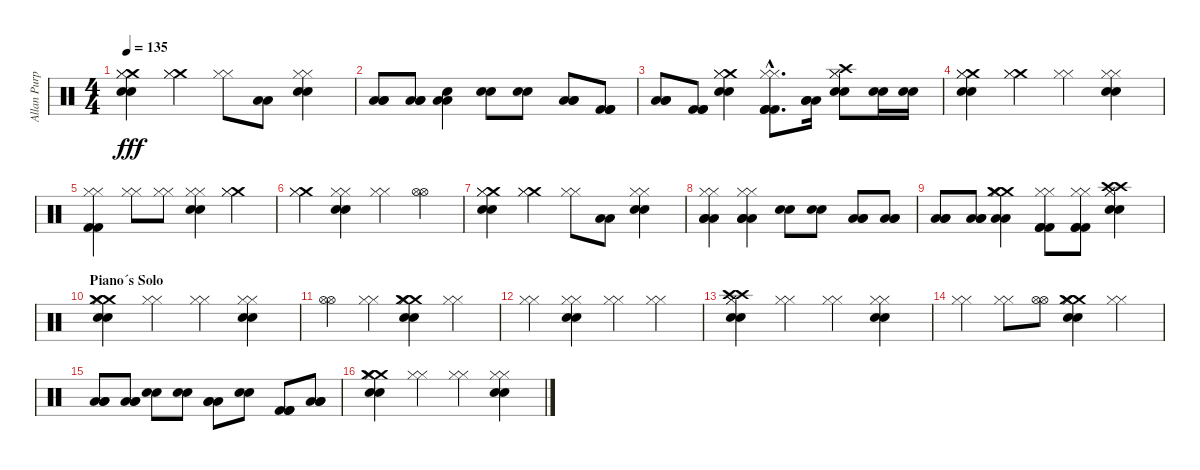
\track ("Allan Purple" "Allan Purp") {instrument percussion}
\staff {score}
\articulation defaults
\ts (4 4)
\tempo 135
\clef neutral
\ks c
("Crash medium (hit)" "Hi-Hat (closed)" "Hi-Hat (closed)" "Electric Snare (hit)" "Electric Snare (hit)").4{dy fff} ("Crash medium (hit)" "Hi-Hat (closed)" "Hi-Hat (closed)").4 ("Hi-Hat (closed)" "Hi-Hat (closed)").8 ("Low Floor Tom (hit)" "Low Floor Tom (hit)").8 ("Hi-Hat (closed)" "Hi-Hat (closed)" "Electric Snare (hit)" "Electric Snare (hit)").4 |
("Low Tom (hit)" "Low Tom (hit)" "Low Tom (hit)").8 ("Low Floor Tom (hit)" "Low Floor Tom (hit)" "Low Floor Tom (hit)").8 ("Low Tom (hit)" "Low Tom (hit)" "Electric Snare (hit)").4 ("Electric Snare (hit)" "Electric Snare (hit)").8 ("Electric Snare (hit)" "Electric Snare (hit)").8 ("Low Tom (hit)" "Low Tom (hit)" "Low Tom (hit)").8 ("Kick (hit) 2" "Kick (hit) 2" "Kick (hit) 2").8 |
("Low Tom (hit)" "Low Tom (hit)" "Low Tom (hit)").8 ("Kick (hit) 2" "Kick (hit) 2" "Kick (hit) 2").8 ("Crash medium (hit)" "Hi-Hat (closed)" "Hi-Hat (closed)" "Electric Snare (hit)" "Electric Snare (hit)").4 ("Kick (hit) 2"{hac} "Hi-Hat (closed)"{hac} "Hi-Hat (closed)"{hac} "Kick (hit) 2"{hac} "Kick (hit) 2"{hac}).8{d} ("Low Tom (hit)" "Low Tom (hit)" "Low Tom (hit)").16 ("Crash high (hit)" "Hi-Hat (closed)" "Hi-Hat (closed)" "Electric Snare (hit)" "Electric Snare (hit)").8 ("Electric Snare (hit)" "Electric Snare (hit)").16 ("Electric Snare (hit)" "Electric Snare (hit)").16 |
("Crash medium (hit)" "Hi-Hat (closed)" "Hi-Hat (closed)" "Electric Snare (hit)" "Electric Snare (hit)").4 ("Crash medium (hit)" "Hi-Hat (closed)" "Hi-Hat (closed)").4 ("Hi-Hat (closed)" "Hi-Hat (closed)").4 ("Hi-Hat (closed)" "Hi-Hat (closed)" "Electric Snare (hit)" "Electric Snare (hit)").4 |
("Hi-Hat (closed)" "Hi-Hat (closed)" "Kick (hit) 2" "Kick (hit) 2").4 ("Hi-Hat (closed)" "Hi-Hat (closed)").8 ("Hi-Hat (closed)" "Hi-Hat (closed)").8 ("Hi-Hat (closed)" "Hi-Hat (closed)" "Electric Snare (hit)" "Electric Snare (hit)").4 ("Crash medium (hit)" "Hi-Hat (closed)" "Hi-Hat (closed)").4 |
("Crash medium (hit)" "Hi-Hat (closed)" "Hi-Hat (closed)").4 ("Hi-Hat (closed)" "Hi-Hat (closed)" "Electric Snare (hit)" "Electric Snare (hit)").4 ("Hi-Hat (closed)" "Hi-Hat (closed)").4 ("Hi-Hat (open)" "Hi-Hat (open)").4 |
("Crash medium (hit)" "Hi-Hat (closed)" "Hi-Hat (closed)" "Electric Snare (hit)" "Electric Snare (hit)").4 ("Crash medium (hit)" "Hi-Hat (closed)" "Hi-Hat (closed)").4 ("Hi-Hat (closed)" "Hi-Hat (closed)").8 ("Low Floor Tom (hit)" "Low Floor Tom (hit)").8 ("Hi-Hat (closed)" "Hi-Hat (closed)" "Electric Snare (hit)" "Electric Snare (hit)").4 |
("Low Tom (hit)" "Hi-Hat (closed)" "Hi-Hat (closed)" "Low Tom (hit)" "Low Tom (hit)").4 ("Low Tom (hit)" "Hi-Hat (closed)" "Hi-Hat (closed)" "Low Tom (hit)" "Low Tom (hit)").4 ("Electric Snare (hit)" "Electric Snare (hit)").8 ("Electric Snare (hit)" "Electric Snare (hit)").8 ("Low Tom (hit)" "Low Tom (hit)" "Low Tom (hit)").8 ("Low Tom (hit)" "Low Tom (hit)" "Low Tom (hit)").8 |
("Low Floor Tom (hit)" "Low Floor Tom (hit)" "Low Floor Tom (hit)").8 ("Low Floor Tom (hit)" "Low Floor Tom (hit)" "Low Floor Tom (hit)").8 ("Crash medium (hit)" "Crash medium (hit)" "Hi-Hat (closed)" "Hi-Hat (closed)" "Low Tom (hit)" "Low Tom (hit)").4 ("Kick (hit) 2" "Hi-Hat (closed)" "Hi-Hat (closed)" "Kick (hit) 2" "Kick (hit) 2").8 ("Kick (hit) 2" "Hi-Hat (closed)" "Hi-Hat (closed)" "Kick (hit) 2" "Kick (hit) 2").8 ("Crash high (hit)" "Crash high (hit)" "Hi-Hat (closed)" "Hi-Hat (closed)" "Electric Snare (hit)" "Electric Snare (hit)").4 |
\section ("" "Piano´s Solo")
("Crash medium (hit)" "Crash medium (hit)" "Hi-Hat (closed)" "Hi-Hat (closed)" "Electric Snare (hit)" "Electric Snare (hit)").4 ("Hi-Hat (closed)" "Hi-Hat (closed)").4 ("Hi-Hat (closed)" "Hi-Hat (closed)").4 ("Hi-Hat (closed)" "Hi-Hat (closed)" "Electric Snare (hit)" "Electric Snare (hit)").4 |
("Hi-Hat (open)" "Hi-Hat (open)").4 ("Hi-Hat (closed)" "Hi-Hat (closed)").4 ("Crash medium (hit)" "Crash medium (hit)" "Hi-Hat (closed)" "Hi-Hat (closed)" "Electric Snare (hit)" "Electric Snare (hit)").4 ("Hi-Hat (closed)" "Hi-Hat (closed)").4 |
("Hi-Hat (closed)" "Hi-Hat (closed)").4 ("Hi-Hat (closed)" "Hi-Hat (closed)" "Electric Snare (hit)" "Electric Snare (hit)").4 ("Hi-Hat (closed)" "Hi-Hat (closed)").4 ("Hi-Hat (closed)" "Hi-Hat (closed)").4 |
("Crash high (hit)" "Crash high (hit)" "Hi-Hat (closed)" "Hi-Hat (closed)" "Electric Snare (hit)" "Electric Snare (hit)").4 ("Hi-Hat (closed)" "Hi-Hat (closed)").4 ("Hi-Hat (closed)" "Hi-Hat (closed)").4 ("Hi-Hat (closed)" "Hi-Hat (closed)" "Electric Snare (hit)" "Electric Snare (hit)").4 |
("Hi-Hat (closed)" "Hi-Hat (closed)").4 ("Hi-Hat (closed)" "Hi-Hat (closed)").8 ("Hi-Hat (open)" "Hi-Hat (open)").8 ("Crash medium (hit)" "Crash medium (hit)" "Hi-Hat (closed)" "Hi-Hat (closed)" "Electric Snare (hit)" "Electric Snare (hit)").4 ("Hi-Hat (closed)" "Hi-Hat (closed)").4 |
("Low Floor Tom (hit)" "Low Floor Tom (hit)" "Low Floor Tom (hit)").8 ("Low Floor Tom (hit)" "Low Floor Tom (hit)" "Low Floor Tom (hit)").8 ("Electric Snare (hit)" "Electric Snare (hit)").8 ("Electric Snare (hit)" "Electric Snare (hit)").8 ("Low Tom (hit)" "Low Tom (hit)" "Low Tom (hit)").8 ("Electric Snare (hit)" "Electric Snare (hit)").8 ("Kick (hit) 2" "Kick (hit) 2" "Kick (hit) 2").8 ("Low Tom (hit)" "Low Tom (hit)" "Low Tom (hit)").8 |
("Crash medium (hit)" "Crash medium (hit)" "Hi-Hat (closed)" "Hi-Hat (closed)" "Electric Snare (hit)" "Electric Snare (hit)").4 ("Hi-Hat (closed)" "Hi-Hat (closed)").4 ("Hi-Hat (closed)" "Hi-Hat (closed)").4 ("Hi-Hat (closed)" "Hi-Hat (closed)" "Electric Snare (hit)" "Electric Snare (hit)").4
